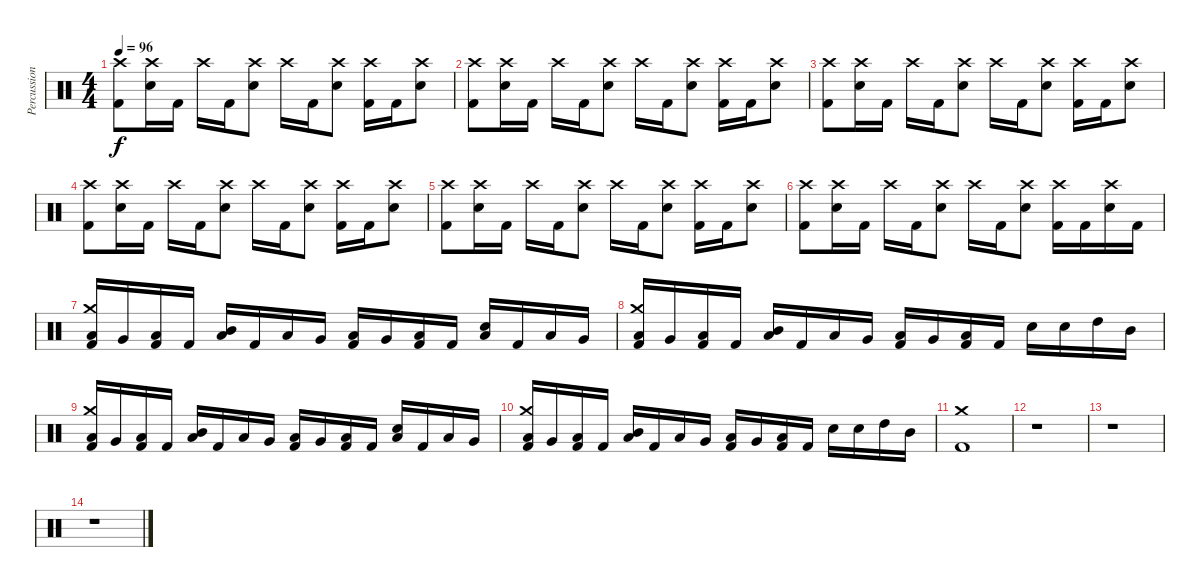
\track ("Percussion" "Percussion") {instrument percussion}
\staff {score}
\articulation defaults
\ts (4 4)
\tempo 96
\clef neutral
\ks c
("Crash high (hit)" "Kick (hit) 2").8{dy f} ("Crash high (hit)" "Snare (hit) 2").16 "Kick (hit) 2".16 "Crash high (hit)".16 "Kick (hit) 2".16 ("Crash high (hit)" "Snare (hit) 2").8 "Crash high (hit)".16 "Kick (hit) 2".16 ("Crash high (hit)" "Snare (hit) 2").8 ("Crash high (hit)" "Kick (hit) 2").16 "Kick (hit) 2".16 ("Crash high (hit)" "Snare (hit) 2").8 |
("Crash high (hit)" "Kick (hit) 2").8 ("Crash high (hit)" "Snare (hit) 2").16 "Kick (hit) 2".16 "Crash high (hit)".16 "Kick (hit) 2".16 ("Crash high (hit)" "Snare (hit) 2").8 "Crash high (hit)".16 "Kick (hit) 2".16 ("Crash high (hit)" "Snare (hit) 2").8 ("Crash high (hit)" "Kick (hit) 2").16 "Kick (hit) 2".16 ("Crash high (hit)" "Snare (hit) 2").8 |
("Crash high (hit)" "Kick (hit) 2").8 ("Crash high (hit)" "Snare (hit) 2").16 "Kick (hit) 2".16 "Crash high (hit)".16 "Kick (hit) 2".16 ("Crash high (hit)" "Snare (hit) 2").8 "Crash high (hit)".16 "Kick (hit) 2".16 ("Crash high (hit)" "Snare (hit) 2").8 ("Crash high (hit)" "Kick (hit) 2").16 "Kick (hit) 2".16 ("Crash high (hit)" "Snare (hit) 2").8 |
("Crash high (hit)" "Kick (hit) 2").8 ("Crash high (hit)" "Snare (hit) 2").16 "Kick (hit) 2".16 "Crash high (hit)".16 "Kick (hit) 2".16 ("Crash high (hit)" "Snare (hit) 2").8 "Crash high (hit)".16 "Kick (hit) 2".16 ("Crash high (hit)" "Snare (hit) 2").8 ("Crash high (hit)" "Kick (hit) 2").16 "Kick (hit) 2".16 ("Crash high (hit)" "Snare (hit) 2").8 |
("Crash high (hit)" "Kick (hit) 2").8 ("Crash high (hit)" "Snare (hit) 2").16 "Kick (hit) 2".16 "Crash high (hit)".16 "Kick (hit) 2".16 ("Crash high (hit)" "Snare (hit) 2").8 "Crash high (hit)".16 "Kick (hit) 2".16 ("Crash high (hit)" "Snare (hit) 2").8 ("Crash high (hit)" "Kick (hit) 2").16 "Kick (hit) 2".16 ("Crash high (hit)" "Snare (hit) 2").8 |
("Crash high (hit)" "Kick (hit) 2").8 ("Crash high (hit)" "Snare (hit) 2").16 "Kick (hit) 2".16 "Crash high (hit)".16 "Kick (hit) 2".16 ("Crash high (hit)" "Snare (hit) 2").8 "Crash high (hit)".16 "Kick (hit) 2".16 ("Crash high (hit)" "Snare (hit) 2").8 ("Crash high (hit)" "Kick (hit) 2").16 "Kick (hit) 2".16 ("Crash high (hit)" "Snare (hit) 2").16 "Kick (hit) 2".16 |
("Crash medium (hit)" "Low Floor Tom (hit)" "Kick (hit) 2").16 "Very Low Tom (hit)".16 ("Low Floor Tom (hit)" "Kick (hit) 2").16 "Kick (hit) 2".16 ("Mid Tom (hit)" "Low Floor Tom (hit)").16 "Kick (hit) 2".16 "Low Floor Tom (hit)".16 "Very Low Tom (hit)".16 ("Low Floor Tom (hit)" "Kick (hit) 2").16 "Very Low Tom (hit)".16 ("Low Floor Tom (hit)" "Kick (hit) 2").16 "Kick (hit) 2".16 ("Snare (hit) 2" "Low Floor Tom (hit)").16 "Kick (hit) 2".16 "Low Floor Tom (hit)".16 "Very Low Tom (hit)".16 |
("Crash medium (hit)" "Low Floor Tom (hit)" "Kick (hit) 2").16 "Very Low Tom (hit)".16 ("Low Floor Tom (hit)" "Kick (hit) 2").16 "Kick (hit) 2".16 ("Mid Tom (hit)" "Low Floor Tom (hit)").16 "Kick (hit) 2".16 "Low Floor Tom (hit)".16 "Very Low Tom (hit)".16 ("Low Floor Tom (hit)" "Kick (hit) 2").16 "Very Low Tom (hit)".16 ("Low Floor Tom (hit)" "Kick (hit) 2").16 "Kick (hit) 2".16 "Snare (hit) 2".16 "Snare (hit) 2".16 "High Tom (hit)".16 "Mid Tom (hit)".16 |
("Crash medium (hit)" "Low Floor Tom (hit)" "Kick (hit) 2").16 "Very Low Tom (hit)".16 ("Low Floor Tom (hit)" "Kick (hit) 2").16 "Kick (hit) 2".16 ("Mid Tom (hit)" "Low Floor Tom (hit)").16 "Kick (hit) 2".16 "Low Floor Tom (hit)".16 "Very Low Tom (hit)".16 ("Low Floor Tom (hit)" "Kick (hit) 2").16 "Very Low Tom (hit)".16 ("Low Floor Tom (hit)" "Kick (hit) 2").16 "Kick (hit) 2".16 ("Snare (hit) 2" "Low Floor Tom (hit)").16 "Kick (hit) 2".16 "Low Floor Tom (hit)".16 "Very Low Tom (hit)".16 |
("Crash medium (hit)" "Low Floor Tom (hit)" "Kick (hit) 2").16 "Very Low Tom (hit)".16 ("Low Floor Tom (hit)" "Kick (hit) 2").16 "Kick (hit) 2".16 ("Mid Tom (hit)" "Low Floor Tom (hit)").16 "Kick (hit) 2".16 "Low Floor Tom (hit)".16 "Very Low Tom (hit)".16 ("Low Floor Tom (hit)" "Kick (hit) 2").16 "Very Low Tom (hit)".16 ("Low Floor Tom (hit)" "Kick (hit) 2").16 "Kick (hit) 2".16 "Snare (hit) 2".16 "Snare (hit) 2".16 "High Tom (hit)".16 "Mid Tom (hit)".16 |
("Crash medium (hit)" "Kick (hit) 2").1 |
r.1 |
r.1 |
r.1
